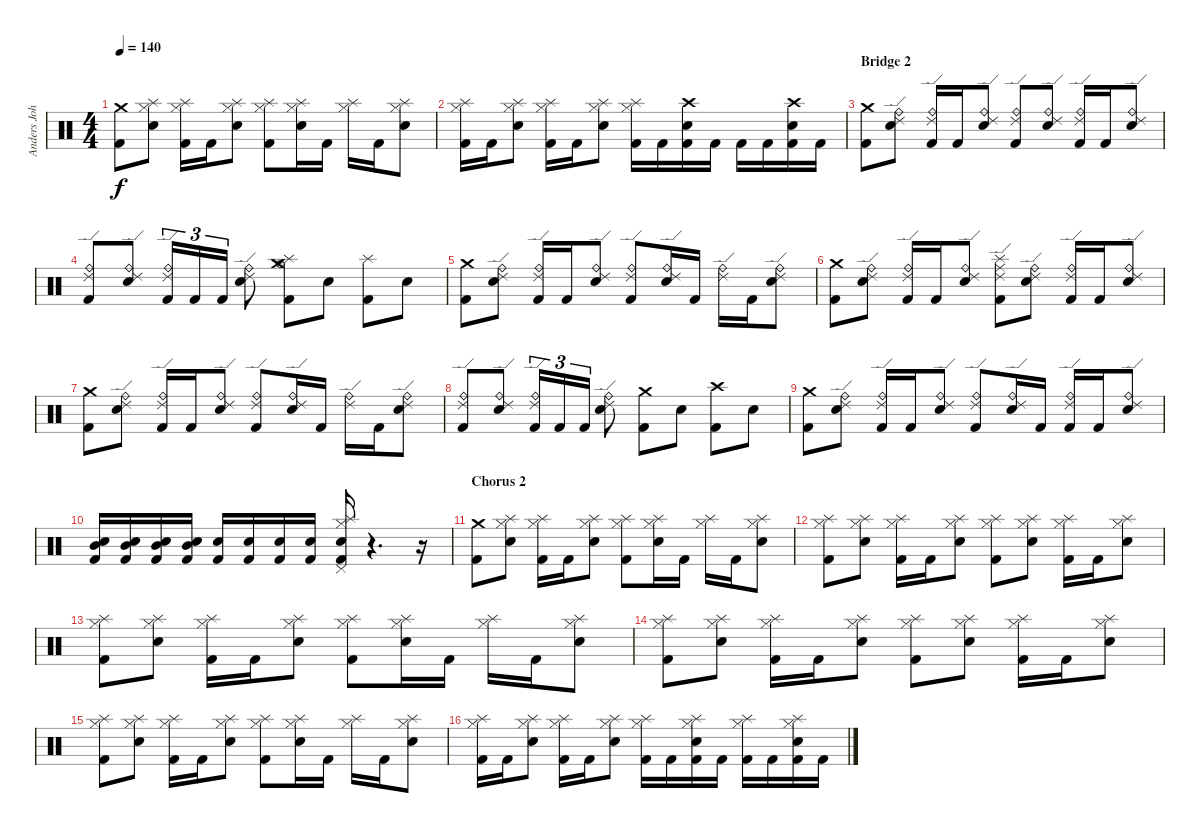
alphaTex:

\track ("Anders Johansson :: Drums" "Anders Joh") {instrument percussion}
\staff {score}
\articulation defaults
\ts (4 4)
\tempo 140
\clef neutral
\ks c
("Crash medium (hit)" "Kick (hit) 2").8{dy f} ("Hi-Hat (closed)" "Splash (hit)" "Snare (hit) 2").8 ("Hi-Hat (closed)" "Splash (hit)" "Kick (hit) 2").16 "Kick (hit) 2".16 ("Hi-Hat (closed)" "Splash (hit)" "Snare (hit) 2").8 ("Hi-Hat (closed)" "Splash (hit)" "Kick (hit) 2").8 ("Hi-Hat (closed)" "Splash (hit)" "Snare (hit) 2").16 "Kick (hit) 2".16 ("Hi-Hat (closed)" "Splash (hit)").16 "Kick (hit) 2".16 ("Hi-Hat (closed)" "Splash (hit)" "Snare (hit) 2").8 |
("Hi-Hat (closed)" "Splash (hit)" "Kick (hit) 2").16 "Kick (hit) 2".16 ("Hi-Hat (closed)" "Splash (hit)" "Snare (hit) 2").8 ("Hi-Hat (closed)" "Splash (hit)" "Kick (hit) 2").16 "Kick (hit) 2".16 ("Hi-Hat (closed)" "Splash (hit)" "Snare (hit) 2").8 ("Hi-Hat (closed)" "Splash (hit)" "Kick (hit) 2").16 "Kick (hit) 2".16 ("Crash high (hit)" "Snare (hit) 2" "Kick (hit) 2").16 "Kick (hit) 2".16 "Kick (hit) 2".16 "Kick (hit) 2".16 ("Crash high (hit)" "Snare (hit) 2" "Kick (hit) 2").16 "Kick (hit) 2".16 |
\section ("" "Bridge 2")
("Crash medium (hit)" "Kick (hit) 2").8 ("Ride (bell)" "Ride (edge) 2" "Snare (hit) 2").8 ("Ride (bell)" "Ride (edge) 2" "Kick (hit) 2").16 "Kick (hit) 2".16 ("Ride (bell)" "Ride (edge) 2" "Snare (hit) 2").8 ("Ride (bell)" "Ride (edge) 2" "Kick (hit) 2").8 ("Ride (bell)" "Ride (edge) 2" "Snare (hit) 2").8 ("Ride (bell)" "Ride (edge) 2" "Kick (hit) 2").16 "Kick (hit) 2".16 ("Ride (bell)" "Ride (edge) 2" "Snare (hit) 2").8 |
("Ride (bell)" "Ride (edge) 2" "Kick (hit) 2").8 ("Ride (bell)" "Ride (edge) 2" "Snare (hit) 2").8 ("Ride (bell)" "Ride (edge) 2" "Kick (hit) 2").16{tu (3 2)} "Kick (hit) 2".16{tu (3 2)} "Kick (hit) 2".16{tu (3 2)} ("Ride (bell)" "Ride (edge) 2" "Snare (hit) 2").8 ("Crash medium (hit)" "Splash (hit)" "Hi-Hat (open)" "Kick (hit) 2").8 "Snare (hit) 2".8 ("Splash (hit)" "Kick (hit) 2").8 "Snare (hit) 2".8 |
("Crash medium (hit)" "Kick (hit) 2").8 ("Ride (bell)" "Ride (edge) 2" "Snare (hit) 2").8 ("Ride (bell)" "Ride (edge) 2" "Kick (hit) 2").16 "Kick (hit) 2".16 ("Ride (bell)" "Ride (edge) 2" "Snare (hit) 2").8 ("Ride (bell)" "Ride (edge) 2" "Kick (hit) 2").8 ("Ride (bell)" "Ride (edge) 2" "Snare (hit) 2").16 "Kick (hit) 2".16 ("Ride (bell)" "Ride (edge) 2").16 "Kick (hit) 2".16 ("Ride (bell)" "Ride (edge) 2" "Snare (hit) 2").8 |
("Crash medium (hit)" "Kick (hit) 2").8 ("Ride (bell)" "Ride (edge) 2" "Snare (hit) 2").8 ("Ride (bell)" "Ride (edge) 2" "Kick (hit) 2").16 "Kick (hit) 2".16 ("Ride (bell)" "Ride (edge) 2" "Snare (hit) 2").8 ("Ride (edge) 2" "Splash (hit)" "Ride (middle)" "Kick (hit) 2").8 ("Ride (bell)" "Ride (edge) 2" "Snare (hit) 2").8 ("Ride (bell)" "Ride (edge) 2" "Kick (hit) 2").16 "Kick (hit) 2".16 ("Ride (bell)" "Ride (edge) 2" "Snare (hit) 2").8 |
("Crash medium (hit)" "Kick (hit) 2").8 ("Ride (bell)" "Ride (edge) 2" "Snare (hit) 2").8 ("Ride (bell)" "Ride (edge) 2" "Kick (hit) 2").16 "Kick (hit) 2".16 ("Ride (bell)" "Ride (edge) 2" "Snare (hit) 2").8 ("Ride (bell)" "Ride (edge) 2" "Kick (hit) 2").8 ("Ride (bell)" "Ride (edge) 2" "Snare (hit) 2").16 "Kick (hit) 2".16 ("Ride (bell)" "Ride (edge) 2").16 "Kick (hit) 2".16 ("Ride (bell)" "Ride (edge) 2" "Snare (hit) 2").8 |
("Ride (bell)" "Ride (edge) 2" "Kick (hit) 2").8 ("Ride (bell)" "Ride (edge) 2" "Snare (hit) 2").8 ("Ride (bell)" "Ride (edge) 2" "Kick (hit) 2").16{tu (3 2)} "Kick (hit) 2".16{tu (3 2)} "Kick (hit) 2".16{tu (3 2)} ("Ride (bell)" "Ride (edge) 2" "Snare (hit) 2").8 ("Crash medium (hit)" "Kick (hit) 2").8 "Snare (hit) 2".8 ("Crash high (hit)" "Kick (hit) 2").8 "Snare (hit) 2".8 |
("Crash medium (hit)" "Kick (hit) 2").8 ("Ride (bell)" "Ride (edge) 2" "Snare (hit) 2").8 ("Ride (bell)" "Ride (edge) 2" "Kick (hit) 2").16 "Kick (hit) 2".16 ("Ride (bell)" "Ride (edge) 2" "Snare (hit) 2").8 ("Ride (bell)" "Ride (edge) 2" "Kick (hit) 2").8 ("Ride (bell)" "Ride (edge) 2" "Snare (hit) 2").16 "Kick (hit) 2".16 ("Ride (bell)" "Ride (edge) 2" "Kick (hit) 2").16 "Kick (hit) 2".16 ("Ride (bell)" "Ride (edge) 2" "Snare (hit) 2").8 |
("Snare (hit) 2" "Mid Tom (hit)" "Kick (hit) 2").16 ("Snare (hit) 2" "Mid Tom (hit)" "Kick (hit) 2").16 ("Snare (hit) 2" "Mid Tom (hit)" "Kick (hit) 2").16 ("Snare (hit) 2" "Mid Tom (hit)" "Kick (hit) 2").16 ("Snare (hit) 2" "Kick (hit) 2").16 ("Snare (hit) 2" "Kick (hit) 2").16 ("Snare (hit) 2" "Kick (hit) 2").16 ("Snare (hit) 2" "Kick (hit) 2").16 ("Splash (hit)" "Hi-Hat (closed)" "Pedal Hi-Hat (hit)" "Snare (hit) 2" "Kick (hit) 2").16 r.4{d} r.16 |
\section ("" "Chorus 2")
("Crash medium (hit)" "Kick (hit) 2").8 ("Hi-Hat (closed)" "Splash (hit)" "Snare (hit) 2").8 ("Hi-Hat (closed)" "Splash (hit)" "Kick (hit) 2").16 "Kick (hit) 2".16 ("Hi-Hat (closed)" "Splash (hit)" "Snare (hit) 2").8 ("Hi-Hat (closed)" "Splash (hit)" "Kick (hit) 2").8 ("Hi-Hat (closed)" "Splash (hit)" "Snare (hit) 2").16 "Kick (hit) 2".16 ("Hi-Hat (closed)" "Splash (hit)").16 "Kick (hit) 2".16 ("Hi-Hat (closed)" "Splash (hit)" "Snare (hit) 2").8 |
("Hi-Hat (closed)" "Splash (hit)" "Kick (hit) 2").8 ("Hi-Hat (closed)" "Splash (hit)" "Snare (hit) 2").8 ("Hi-Hat (closed)" "Splash (hit)" "Kick (hit) 2").16 "Kick (hit) 2".16 ("Hi-Hat (closed)" "Splash (hit)" "Snare (hit) 2").8 ("Hi-Hat (closed)" "Splash (hit)" "Kick (hit) 2").8 ("Hi-Hat (closed)" "Splash (hit)" "Snare (hit) 2").8 ("Hi-Hat (closed)" "Splash (hit)" "Kick (hit) 2").16 "Kick (hit) 2".16 ("Hi-Hat (closed)" "Splash (hit)" "Snare (hit) 2").8 |
("Hi-Hat (closed)" "Splash (hit)" "Kick (hit) 2").8 ("Hi-Hat (closed)" "Splash (hit)" "Snare (hit) 2").8 ("Hi-Hat (closed)" "Splash (hit)" "Kick (hit) 2").16 "Kick (hit) 2".16 ("Hi-Hat (closed)" "Splash (hit)" "Snare (hit) 2").8 ("Hi-Hat (closed)" "Splash (hit)" "Kick (hit) 2").8 ("Hi-Hat (closed)" "Splash (hit)" "Snare (hit) 2").16 "Kick (hit) 2".16 ("Hi-Hat (closed)" "Splash (hit)").16 "Kick (hit) 2".16 ("Hi-Hat (closed)" "Splash (hit)" "Snare (hit) 2").8 |
("Hi-Hat (closed)" "Splash (hit)" "Kick (hit) 2").8 ("Hi-Hat (closed)" "Splash (hit)" "Snare (hit) 2").8 ("Hi-Hat (closed)" "Splash (hit)" "Kick (hit) 2").16 "Kick (hit) 2".16 ("Hi-Hat (closed)" "Splash (hit)" "Snare (hit) 2").8 ("Hi-Hat (closed)" "Splash (hit)" "Kick (hit) 2").8 ("Hi-Hat (closed)" "Splash (hit)" "Snare (hit) 2").8 ("Hi-Hat (closed)" "Splash (hit)" "Kick (hit) 2").16 "Kick (hit) 2".16 ("Hi-Hat (closed)" "Splash (hit)" "Snare (hit) 2").8 |
("Hi-Hat (closed)" "Splash (hit)" "Kick (hit) 2").8 ("Hi-Hat (closed)" "Splash (hit)" "Snare (hit) 2").8 ("Hi-Hat (closed)" "Splash (hit)" "Kick (hit) 2").16 "Kick (hit) 2".16 ("Hi-Hat (closed)" "Splash (hit)" "Snare (hit) 2").8 ("Hi-Hat (closed)" "Splash (hit)" "Kick (hit) 2").8 ("Hi-Hat (closed)" "Splash (hit)" "Snare (hit) 2").16 "Kick (hit) 2".16 ("Hi-Hat (closed)" "Splash (hit)").16 "Kick (hit) 2".16 ("Hi-Hat (closed)" "Splash (hit)" "Snare (hit) 2").8 |
("Hi-Hat (closed)" "Splash (hit)" "Kick (hit) 2").16 "Kick (hit) 2".16 ("Hi-Hat (closed)" "Splash (hit)" "Snare (hit) 2").8 ("Hi-Hat (closed)" "Splash (hit)" "Kick (hit) 2").16 "Kick (hit) 2".16 ("Hi-Hat (closed)" "Splash (hit)" "Snare (hit) 2").8 ("Hi-Hat (closed)" "Splash (hit)" "Kick (hit) 2").16 "Kick (hit) 2".16 ("Hi-Hat (closed)" "Splash (hit)" "Snare (hit) 2" "Kick (hit) 2").16 "Kick (hit) 2".16 ("Hi-Hat (closed)" "Splash (hit)" "Kick (hit) 2").16 "Kick (hit) 2".16 ("Hi-Hat (closed)" "Splash (hit)" "Snare (hit) 2" "Kick (hit) 2").16 "Kick (hit) 2".16
